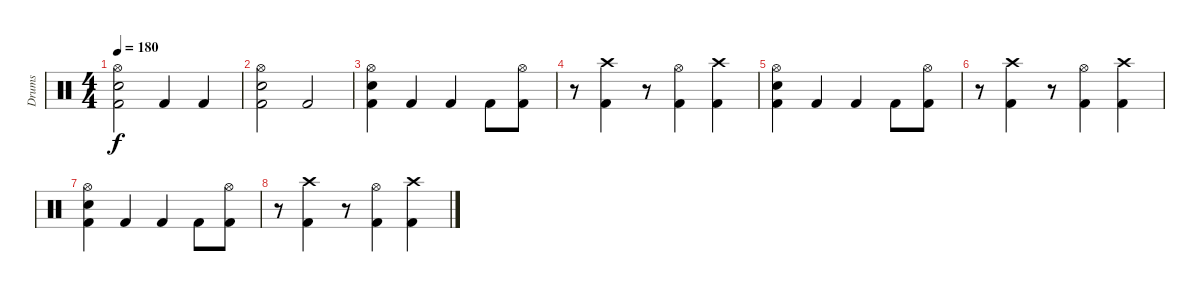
\track ("Drums" "Drums") {instrument percussion}
\staff {score}
\articulation defaults
\ts (4 4)
\tempo 180
\clef neutral
\ks c
("Kick (hit) 2" "Snare (hit) 2" "Hi-Hat (open)").2{dy f} "Kick (hit) 2".4 "Kick (hit) 2".4 |
("Kick (hit) 2" "Snare (hit) 2" "Hi-Hat (open)").2 "Kick (hit) 2".2 |
("Kick (hit) 2" "Snare (hit) 2" "Hi-Hat (open)").4 "Kick (hit) 2".4 "Kick (hit) 2".4 "Kick (hit) 2".8 ("Kick (hit) 2" "Hi-Hat (open)").8 |
r.8 ("Kick (hit) 2" "Crash high (hit)").4 r.8 ("Kick (hit) 2" "Hi-Hat (open)").4 ("Kick (hit) 2" "Crash high (hit)").4 |
("Kick (hit) 2" "Snare (hit) 2" "Hi-Hat (open)").4 "Kick (hit) 2".4 "Kick (hit) 2".4 "Kick (hit) 2".8 ("Kick (hit) 2" "Hi-Hat (open)").8 |
r.8 ("Kick (hit) 2" "Crash high (hit)").4 r.8 ("Kick (hit) 2" "Hi-Hat (open)").4 ("Kick (hit) 2" "Crash high (hit)").4 |
("Kick (hit) 2" "Snare (hit) 2" "Hi-Hat (open)").4 "Kick (hit) 2".4 "Kick (hit) 2".4 "Kick (hit) 2".8 ("Kick (hit) 2" "Hi-Hat (open)").8 |
r.8 ("Kick (hit) 2" "Crash high (hit)").4 r.8 ("Kick (hit) 2" "Hi-Hat (open)").4 ("Kick (hit) 2" "Crash high (hit)").4
